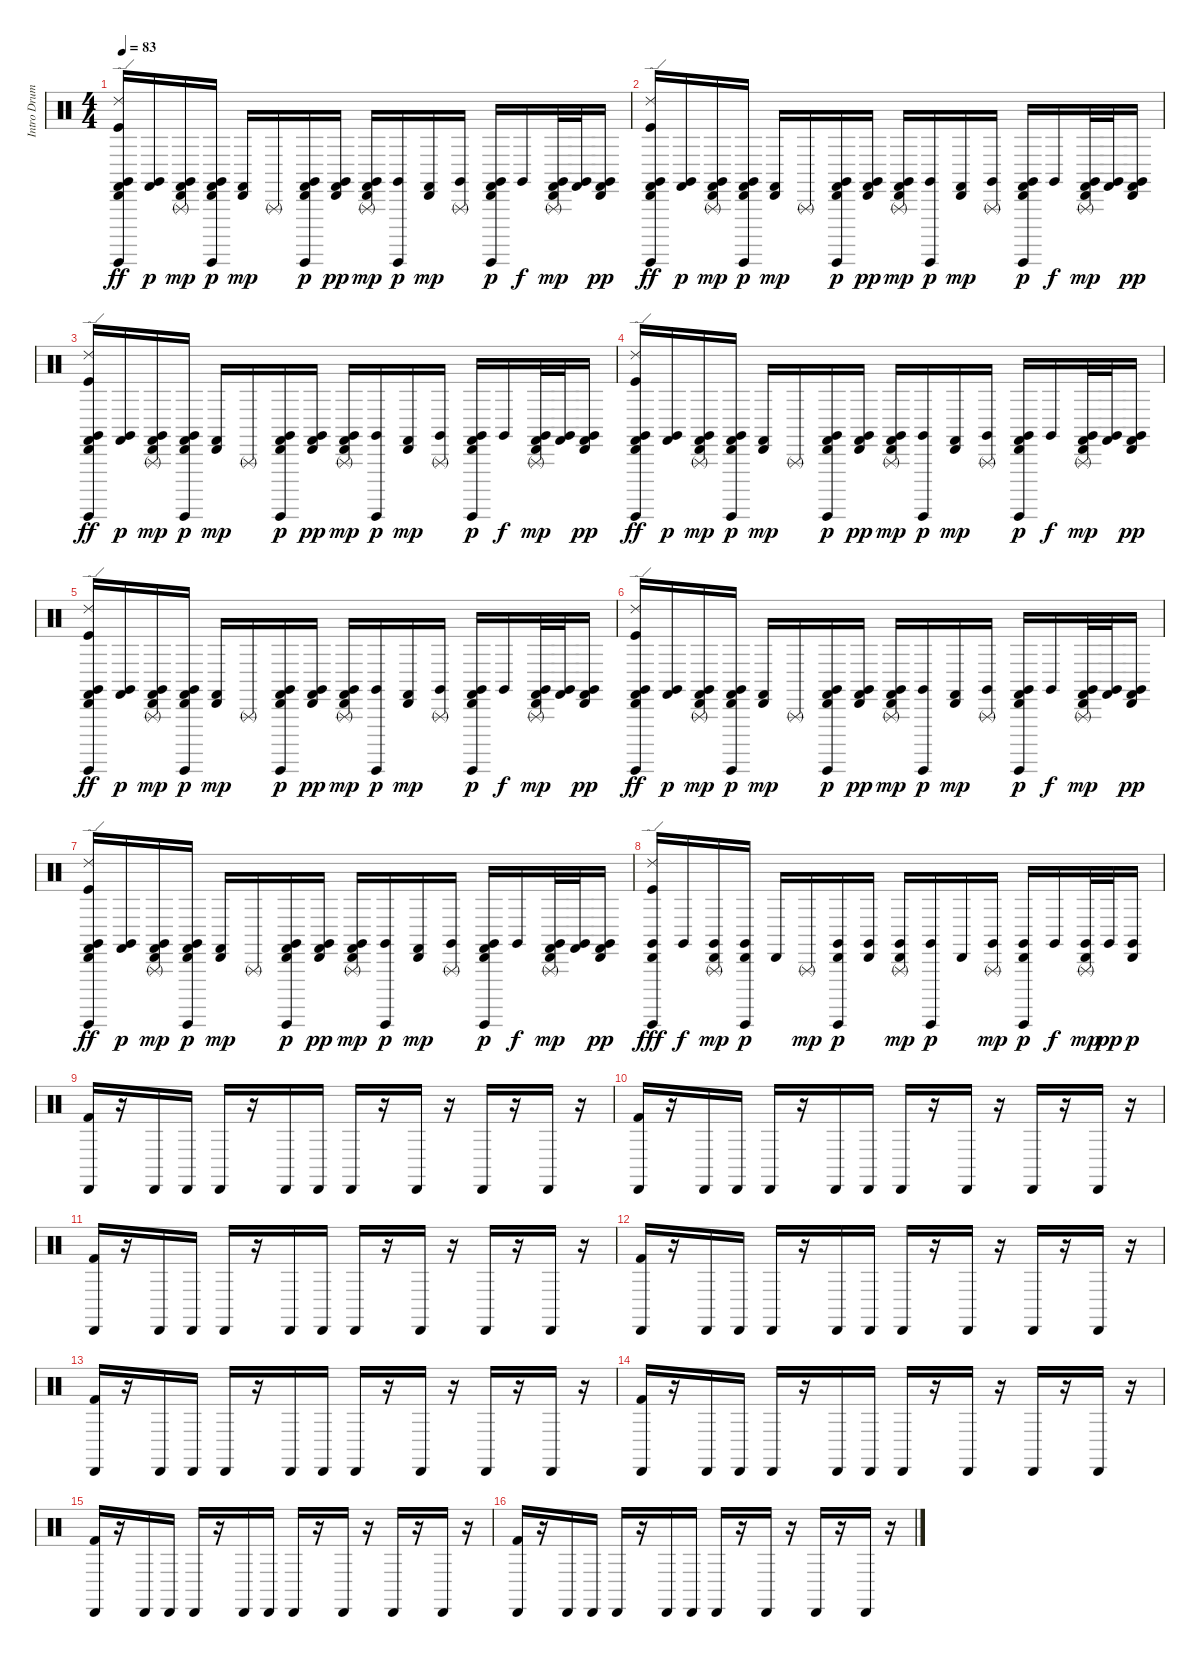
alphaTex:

\track ("Intro Drums" "Intro Drum") {instrument percussion}
\staff {score}
\articulation defaults
\ts (4 4)
\tempo 83
\clef neutral
\ks c
("Claves (hit)" "Cabasa (hit)" "Guiro (hit)" "Castanets (hit)" "Ride (edge) 2" "Kick (hit)").16{dy ff} ("Claves (hit)" "Castanets (hit)").16{dy p} ("Claves (hit)" "Cabasa (hit)" "Castanets (hit)" "Triangle (rnute)").16{dy mp} ("Claves (hit)" "Cabasa (hit)" "Guiro (hit)" "Castanets (hit)").16{dy p} ("Cabasa (hit)" "Castanets (hit)").16{dy mp} "Triangle (rnute)".16 ("Claves (hit)" "Cabasa (hit)" "Guiro (hit)" "Castanets (hit)").16{dy p} ("Claves (hit)" "Cabasa (hit)" "Castanets (hit)").16{dy pp} ("Claves (hit)" "Cabasa (hit)" "Castanets (hit)" "Triangle (rnute)").16{dy mp} ("Claves (hit)" "Guiro (hit)").16{dy p} ("Cabasa (hit)" "Castanets (hit)").16{dy mp} ("Claves (hit)" "Triangle (rnute)").16 ("Claves (hit)" "Cabasa (hit)" "Guiro (hit)" "Castanets (hit)").16{dy p} "Claves (hit)".16{dy f} ("Claves (hit)" "Cabasa (hit)" "Castanets (hit)" "Triangle (rnute)").32{dy mp} ("Claves (hit)" "Castanets (hit)").32 ("Claves (hit)" "Cabasa (hit)" "Castanets (hit)").16{dy pp} |
("Claves (hit)" "Cabasa (hit)" "Guiro (hit)" "Castanets (hit)" "Ride (edge) 2" "Kick (hit)").16{dy ff} ("Claves (hit)" "Castanets (hit)").16{dy p} ("Claves (hit)" "Cabasa (hit)" "Castanets (hit)" "Triangle (rnute)").16{dy mp} ("Claves (hit)" "Cabasa (hit)" "Guiro (hit)" "Castanets (hit)").16{dy p} ("Cabasa (hit)" "Castanets (hit)").16{dy mp} "Triangle (rnute)".16 ("Claves (hit)" "Cabasa (hit)" "Guiro (hit)" "Castanets (hit)").16{dy p} ("Claves (hit)" "Cabasa (hit)" "Castanets (hit)").16{dy pp} ("Claves (hit)" "Cabasa (hit)" "Castanets (hit)" "Triangle (rnute)").16{dy mp} ("Claves (hit)" "Guiro (hit)").16{dy p} ("Cabasa (hit)" "Castanets (hit)").16{dy mp} ("Claves (hit)" "Triangle (rnute)").16 ("Claves (hit)" "Cabasa (hit)" "Guiro (hit)" "Castanets (hit)").16{dy p} "Claves (hit)".16{dy f} ("Claves (hit)" "Cabasa (hit)" "Castanets (hit)" "Triangle (rnute)").32{dy mp} ("Claves (hit)" "Castanets (hit)").32 ("Claves (hit)" "Cabasa (hit)" "Castanets (hit)").16{dy pp} |
("Claves (hit)" "Cabasa (hit)" "Guiro (hit)" "Castanets (hit)" "Ride (edge) 2" "Kick (hit)").16{dy ff} ("Claves (hit)" "Castanets (hit)").16{dy p} ("Claves (hit)" "Cabasa (hit)" "Castanets (hit)" "Triangle (rnute)").16{dy mp} ("Claves (hit)" "Cabasa (hit)" "Guiro (hit)" "Castanets (hit)").16{dy p} ("Cabasa (hit)" "Castanets (hit)").16{dy mp} "Triangle (rnute)".16 ("Claves (hit)" "Cabasa (hit)" "Guiro (hit)" "Castanets (hit)").16{dy p} ("Claves (hit)" "Cabasa (hit)" "Castanets (hit)").16{dy pp} ("Claves (hit)" "Cabasa (hit)" "Castanets (hit)" "Triangle (rnute)").16{dy mp} ("Claves (hit)" "Guiro (hit)").16{dy p} ("Cabasa (hit)" "Castanets (hit)").16{dy mp} ("Claves (hit)" "Triangle (rnute)").16 ("Claves (hit)" "Cabasa (hit)" "Guiro (hit)" "Castanets (hit)").16{dy p} "Claves (hit)".16{dy f} ("Claves (hit)" "Cabasa (hit)" "Castanets (hit)" "Triangle (rnute)").32{dy mp} ("Claves (hit)" "Castanets (hit)").32 ("Claves (hit)" "Cabasa (hit)" "Castanets (hit)").16{dy pp} |
("Claves (hit)" "Cabasa (hit)" "Guiro (hit)" "Castanets (hit)" "Ride (edge) 2" "Kick (hit)").16{dy ff} ("Claves (hit)" "Castanets (hit)").16{dy p} ("Claves (hit)" "Cabasa (hit)" "Castanets (hit)" "Triangle (rnute)").16{dy mp} ("Claves (hit)" "Cabasa (hit)" "Guiro (hit)" "Castanets (hit)").16{dy p} ("Cabasa (hit)" "Castanets (hit)").16{dy mp} "Triangle (rnute)".16 ("Claves (hit)" "Cabasa (hit)" "Guiro (hit)" "Castanets (hit)").16{dy p} ("Claves (hit)" "Cabasa (hit)" "Castanets (hit)").16{dy pp} ("Claves (hit)" "Cabasa (hit)" "Castanets (hit)" "Triangle (rnute)").16{dy mp} ("Claves (hit)" "Guiro (hit)").16{dy p} ("Cabasa (hit)" "Castanets (hit)").16{dy mp} ("Claves (hit)" "Triangle (rnute)").16 ("Claves (hit)" "Cabasa (hit)" "Guiro (hit)" "Castanets (hit)").16{dy p} "Claves (hit)".16{dy f} ("Claves (hit)" "Cabasa (hit)" "Castanets (hit)" "Triangle (rnute)").32{dy mp} ("Claves (hit)" "Castanets (hit)").32 ("Claves (hit)" "Cabasa (hit)" "Castanets (hit)").16{dy pp} |
("Claves (hit)" "Cabasa (hit)" "Guiro (hit)" "Castanets (hit)" "Ride (edge) 2" "Kick (hit)").16{dy ff} ("Claves (hit)" "Castanets (hit)").16{dy p} ("Claves (hit)" "Cabasa (hit)" "Castanets (hit)" "Triangle (rnute)").16{dy mp} ("Claves (hit)" "Cabasa (hit)" "Guiro (hit)" "Castanets (hit)").16{dy p} ("Cabasa (hit)" "Castanets (hit)").16{dy mp} "Triangle (rnute)".16 ("Claves (hit)" "Cabasa (hit)" "Guiro (hit)" "Castanets (hit)").16{dy p} ("Claves (hit)" "Cabasa (hit)" "Castanets (hit)").16{dy pp} ("Claves (hit)" "Cabasa (hit)" "Castanets (hit)" "Triangle (rnute)").16{dy mp} ("Claves (hit)" "Guiro (hit)").16{dy p} ("Cabasa (hit)" "Castanets (hit)").16{dy mp} ("Claves (hit)" "Triangle (rnute)").16 ("Claves (hit)" "Cabasa (hit)" "Guiro (hit)" "Castanets (hit)").16{dy p} "Claves (hit)".16{dy f} ("Claves (hit)" "Cabasa (hit)" "Castanets (hit)" "Triangle (rnute)").32{dy mp} ("Claves (hit)" "Castanets (hit)").32 ("Claves (hit)" "Cabasa (hit)" "Castanets (hit)").16{dy pp} |
("Claves (hit)" "Cabasa (hit)" "Guiro (hit)" "Castanets (hit)" "Ride (edge) 2" "Kick (hit)").16{dy ff} ("Claves (hit)" "Castanets (hit)").16{dy p} ("Claves (hit)" "Cabasa (hit)" "Castanets (hit)" "Triangle (rnute)").16{dy mp} ("Claves (hit)" "Cabasa (hit)" "Guiro (hit)" "Castanets (hit)").16{dy p} ("Cabasa (hit)" "Castanets (hit)").16{dy mp} "Triangle (rnute)".16 ("Claves (hit)" "Cabasa (hit)" "Guiro (hit)" "Castanets (hit)").16{dy p} ("Claves (hit)" "Cabasa (hit)" "Castanets (hit)").16{dy pp} ("Claves (hit)" "Cabasa (hit)" "Castanets (hit)" "Triangle (rnute)").16{dy mp} ("Claves (hit)" "Guiro (hit)").16{dy p} ("Cabasa (hit)" "Castanets (hit)").16{dy mp} ("Claves (hit)" "Triangle (rnute)").16 ("Claves (hit)" "Cabasa (hit)" "Guiro (hit)" "Castanets (hit)").16{dy p} "Claves (hit)".16{dy f} ("Claves (hit)" "Cabasa (hit)" "Castanets (hit)" "Triangle (rnute)").32{dy mp} ("Claves (hit)" "Castanets (hit)").32 ("Claves (hit)" "Cabasa (hit)" "Castanets (hit)").16{dy pp} |
("Claves (hit)" "Cabasa (hit)" "Guiro (hit)" "Castanets (hit)" "Ride (edge) 2" "Kick (hit)").16{dy ff} ("Claves (hit)" "Castanets (hit)").16{dy p} ("Claves (hit)" "Cabasa (hit)" "Castanets (hit)" "Triangle (rnute)").16{dy mp} ("Claves (hit)" "Cabasa (hit)" "Guiro (hit)" "Castanets (hit)").16{dy p} ("Cabasa (hit)" "Castanets (hit)").16{dy mp} "Triangle (rnute)".16 ("Claves (hit)" "Cabasa (hit)" "Guiro (hit)" "Castanets (hit)").16{dy p} ("Claves (hit)" "Cabasa (hit)" "Castanets (hit)").16{dy pp} ("Claves (hit)" "Cabasa (hit)" "Castanets (hit)" "Triangle (rnute)").16{dy mp} ("Claves (hit)" "Guiro (hit)").16{dy p} ("Cabasa (hit)" "Castanets (hit)").16{dy mp} ("Claves (hit)" "Triangle (rnute)").16 ("Claves (hit)" "Cabasa (hit)" "Guiro (hit)" "Castanets (hit)").16{dy p} "Claves (hit)".16{dy f} ("Claves (hit)" "Cabasa (hit)" "Castanets (hit)" "Triangle (rnute)").32{dy mp} ("Claves (hit)" "Castanets (hit)").32 ("Claves (hit)" "Cabasa (hit)" "Castanets (hit)").16{dy pp} |
("Claves (hit)" "Cabasa (hit)" "Guiro (hit)" "Ride (edge) 2" "Kick (hit)").16{dy fff} "Claves (hit)".16{dy f} ("Claves (hit)" "Cabasa (hit)" "Triangle (rnute)").16{dy mp} ("Claves (hit)" "Cabasa (hit)" "Guiro (hit)").16{dy p} "Cabasa (hit)".16 "Triangle (rnute)".16{dy mp} ("Claves (hit)" "Cabasa (hit)" "Guiro (hit)").16{dy p} ("Claves (hit)" "Cabasa (hit)").16 ("Claves (hit)" "Cabasa (hit)" "Triangle (rnute)").16{dy mp} ("Claves (hit)" "Guiro (hit)").16{dy p} "Cabasa (hit)".16 ("Claves (hit)" "Triangle (rnute)").16{dy mp} ("Claves (hit)" "Cabasa (hit)" "Guiro (hit)").16{dy p} "Claves (hit)".16{dy f} ("Claves (hit)" "Cabasa (hit)" "Triangle (rnute)").32{dy mp} "Claves (hit)".32{dy pp} ("Claves (hit)" "Cabasa (hit)").16{dy p} |
("Cabasa (hit)" "Kick (hit) 2").16{volume 16} r.16 "Cabasa (hit)".16 "Cabasa (hit)".16 "Cabasa (hit)".16 r.16 "Cabasa (hit)".16 "Cabasa (hit)".16 "Cabasa (hit)".16 r.16 "Cabasa (hit)".16 r.16 "Cabasa (hit)".16 r.16 "Cabasa (hit)".16 r.16 |
("Cabasa (hit)" "Kick (hit) 2").16 r.16 "Cabasa (hit)".16 "Cabasa (hit)".16 "Cabasa (hit)".16 r.16 "Cabasa (hit)".16 "Cabasa (hit)".16 "Cabasa (hit)".16 r.16 "Cabasa (hit)".16 r.16 "Cabasa (hit)".16 r.16 "Cabasa (hit)".16 r.16 |
("Cabasa (hit)" "Kick (hit) 2").16 r.16 "Cabasa (hit)".16 "Cabasa (hit)".16 "Cabasa (hit)".16 r.16 "Cabasa (hit)".16 "Cabasa (hit)".16 "Cabasa (hit)".16 r.16 "Cabasa (hit)".16 r.16 "Cabasa (hit)".16 r.16 "Cabasa (hit)".16 r.16 |
("Cabasa (hit)" "Kick (hit) 2").16 r.16 "Cabasa (hit)".16 "Cabasa (hit)".16 "Cabasa (hit)".16 r.16 "Cabasa (hit)".16 "Cabasa (hit)".16 "Cabasa (hit)".16 r.16 "Cabasa (hit)".16 r.16 "Cabasa (hit)".16 r.16 "Cabasa (hit)".16 r.16 |
("Cabasa (hit)" "Kick (hit) 2").16 r.16 "Cabasa (hit)".16 "Cabasa (hit)".16 "Cabasa (hit)".16 r.16 "Cabasa (hit)".16 "Cabasa (hit)".16 "Cabasa (hit)".16 r.16 "Cabasa (hit)".16 r.16 "Cabasa (hit)".16 r.16 "Cabasa (hit)".16 r.16 |
("Cabasa (hit)" "Kick (hit) 2").16 r.16 "Cabasa (hit)".16 "Cabasa (hit)".16 "Cabasa (hit)".16 r.16 "Cabasa (hit)".16 "Cabasa (hit)".16 "Cabasa (hit)".16 r.16 "Cabasa (hit)".16 r.16 "Cabasa (hit)".16 r.16 "Cabasa (hit)".16 r.16 |
("Cabasa (hit)" "Kick (hit) 2").16 r.16 "Cabasa (hit)".16 "Cabasa (hit)".16 "Cabasa (hit)".16 r.16 "Cabasa (hit)".16 "Cabasa (hit)".16 "Cabasa (hit)".16 r.16 "Cabasa (hit)".16 r.16 "Cabasa (hit)".16 r.16 "Cabasa (hit)".16 r.16 |
("Cabasa (hit)" "Kick (hit) 2").16 r.16 "Cabasa (hit)".16 "Cabasa (hit)".16 "Cabasa (hit)".16 r.16 "Cabasa (hit)".16 "Cabasa (hit)".16 "Cabasa (hit)".16 r.16 "Cabasa (hit)".16 r.16 "Cabasa (hit)".16 r.16 "Cabasa (hit)".16 r.16
